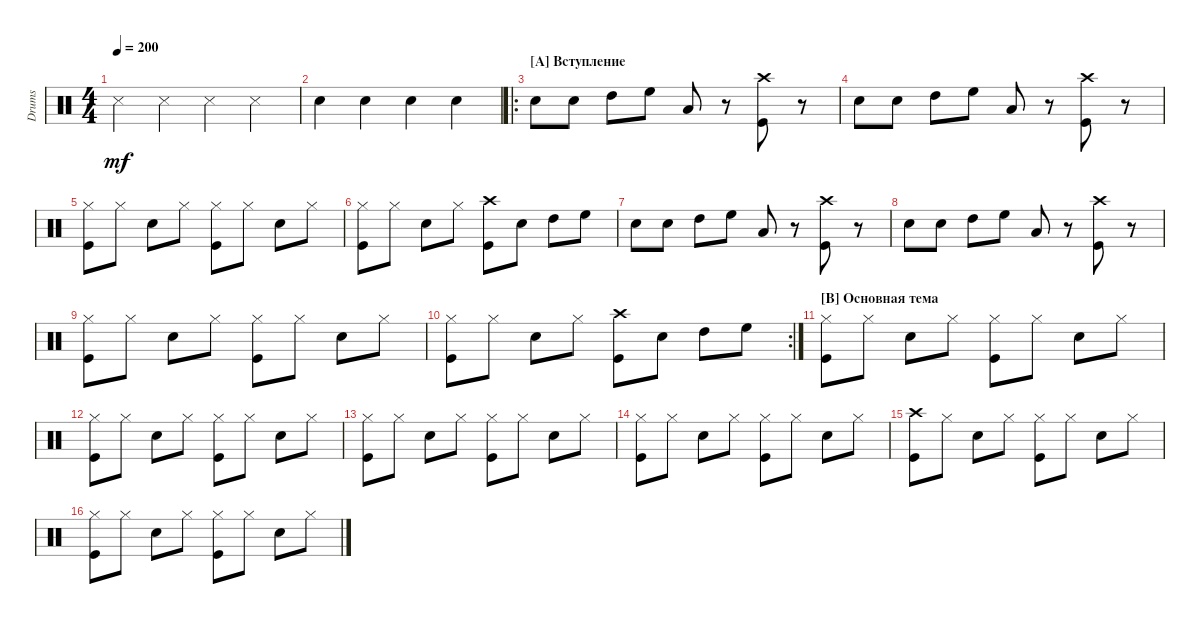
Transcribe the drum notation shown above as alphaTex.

\track ("Drumkit" "Drums") {instrument percussion}
\staff {score}
\articulation defaults
\ts (4 4)
\tempo 200
\clef neutral
\ks c "Snare (side stick) 3".4{dy mf} "Snare (side stick) 3".4 "Snare (side stick) 3".4 "Snare (side stick) 3".4
|
"Snare (hit) 2".4 "Snare (hit) 2".4 "Snare (hit) 2".4 "Snare (hit) 2".4 |
\ro
\section ("A" "Вступление")
"Snare (hit) 2".8 "Snare (hit) 2".8 "High Tom (hit)".8 "High Floor Tom (hit)".8 "Low Tom (hit)".8 r.8 ("Crash high (hit)" "Kick (hit)").8 r.8 |
"Snare (hit) 2".8 "Snare (hit) 2".8 "High Tom (hit)".8 "High Floor Tom (hit)".8 "Low Tom (hit)".8 r.8 ("Crash high (hit)" "Kick (hit)").8 r.8 |
("Kick (hit)" "Hi-Hat (closed)").8 "Hi-Hat (closed)".8 "Snare (hit) 2".8 "Hi-Hat (closed)".8 ("Kick (hit)" "Hi-Hat (closed)").8 "Hi-Hat (closed)".8 "Snare (hit) 2".8 "Hi-Hat (closed)".8 |
("Kick (hit)" "Hi-Hat (closed)").8 "Hi-Hat (closed)".8 "Snare (hit) 2".8 "Hi-Hat (closed)".8 ("Kick (hit)" "Crash high (hit)").8 "Snare (hit) 2".8 "High Tom (hit)".8 "High Floor Tom (hit)".8 |
"Snare (hit) 2".8 "Snare (hit) 2".8 "High Tom (hit)".8 "High Floor Tom (hit)".8 "Low Tom (hit)".8 r.8 ("Crash high (hit)" "Kick (hit)").8 r.8 |
"Snare (hit) 2".8 "Snare (hit) 2".8 "High Tom (hit)".8 "High Floor Tom (hit)".8 "Low Tom (hit)".8 r.8 ("Crash high (hit)" "Kick (hit)").8 r.8 |
("Kick (hit)" "Hi-Hat (closed)").8 "Hi-Hat (closed)".8 "Snare (hit) 2".8 "Hi-Hat (closed)".8 ("Kick (hit)" "Hi-Hat (closed)").8 "Hi-Hat (closed)".8 "Snare (hit) 2".8 "Hi-Hat (closed)".8 |
\rc 2
("Kick (hit)" "Hi-Hat (closed)").8 "Hi-Hat (closed)".8 "Snare (hit) 2".8 "Hi-Hat (closed)".8 ("Kick (hit)" "Crash high (hit)").8 "Snare (hit) 2".8 "High Tom (hit)".8 "High Floor Tom (hit)".8 |
\section ("B" "Основная тема")
("Kick (hit)" "Hi-Hat (closed)").8 "Hi-Hat (closed)".8 "Snare (hit) 2".8 "Hi-Hat (closed)".8 ("Kick (hit)" "Hi-Hat (closed)").8 "Hi-Hat (closed)".8 "Snare (hit) 2".8 "Hi-Hat (closed)".8 |
("Kick (hit)" "Hi-Hat (closed)").8 "Hi-Hat (closed)".8 "Snare (hit) 2".8 "Hi-Hat (closed)".8 ("Kick (hit)" "Hi-Hat (closed)").8 "Hi-Hat (closed)".8 "Snare (hit) 2".8 "Hi-Hat (closed)".8 |
("Kick (hit)" "Hi-Hat (closed)").8 "Hi-Hat (closed)".8 "Snare (hit) 2".8 "Hi-Hat (closed)".8 ("Kick (hit)" "Hi-Hat (closed)").8 "Hi-Hat (closed)".8 "Snare (hit) 2".8 "Hi-Hat (closed)".8 |
("Kick (hit)" "Hi-Hat (closed)").8 "Hi-Hat (closed)".8 "Snare (hit) 2".8 "Hi-Hat (closed)".8 ("Kick (hit)" "Hi-Hat (closed)").8 "Hi-Hat (closed)".8 "Snare (hit) 2".8 "Hi-Hat (closed)".8 |
("Kick (hit)" "Crash high (hit)").8 "Hi-Hat (closed)".8 "Snare (hit) 2".8 "Hi-Hat (closed)".8 ("Kick (hit)" "Hi-Hat (closed)").8 "Hi-Hat (closed)".8 "Snare (hit) 2".8 "Hi-Hat (closed)".8 |
("Kick (hit)" "Hi-Hat (closed)").8 "Hi-Hat (closed)".8 "Snare (hit) 2".8 "Hi-Hat (closed)".8 ("Kick (hit)" "Hi-Hat (closed)").8 "Hi-Hat (closed)".8 "Snare (hit) 2".8 "Hi-Hat (closed)".8
